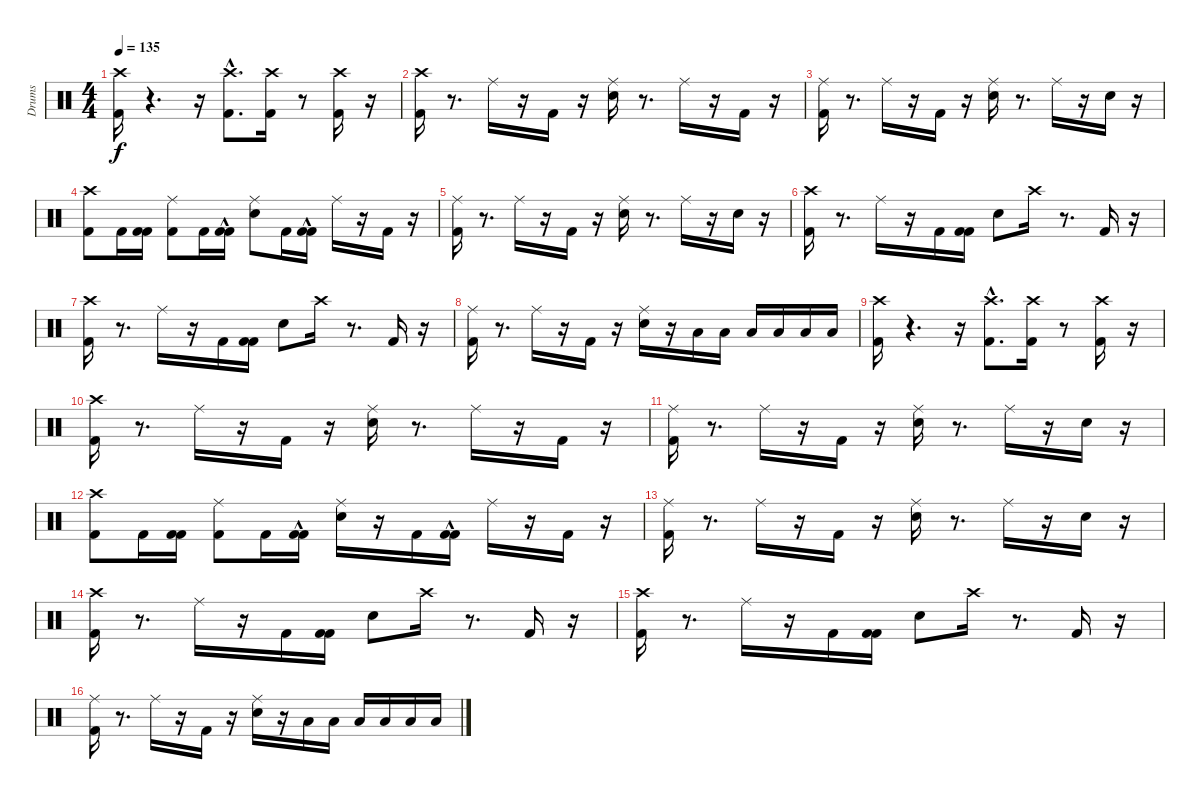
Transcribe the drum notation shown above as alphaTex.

\track ("Drums" "Drums") {instrument percussion}
\staff {score}
\articulation defaults
\ts (4 4)
\tempo 135
\clef neutral
\ks c
("Kick (hit) 2" "Crash high (hit)").16{dy f} r.4{d} r.16 ("Kick (hit) 2"{hac} "Crash high (hit)"{hac}).8{d} ("Kick (hit) 2" "Crash high (hit)").16 r.8 ("Kick (hit) 2" "Crash high (hit)").16 r.16 |
("Kick (hit) 2" "Crash high (hit)").16 r.8{d} "Ride (middle)".16 r.16 "Kick (hit) 2".16 r.16 ("Snare (hit) 2" "Ride (middle)").16 r.8{d} "Ride (middle)".16 r.16 "Kick (hit) 2".16 r.16 |
("Kick (hit) 2" "Ride (middle)").16 r.8{d} "Ride (middle)".16 r.16 "Kick (hit) 2".16 r.16 ("Snare (hit) 2" "Ride (middle)").16 r.8{d} "Ride (middle)".16 r.16 "Snare (hit) 2".16 r.16 |
("Kick (hit) 2" "Crash high (hit)").8 "Kick (hit) 2".16 ("Kick (hit) 2" "Kick (hit) 2").16 ("Kick (hit) 2" "Ride (middle)").8 "Kick (hit) 2".16 ("Kick (hit) 2"{hac} "Kick (hit) 2"{hac}).16 ("Snare (hit) 2" "Ride (middle)").8 "Kick (hit) 2".16 ("Kick (hit) 2"{hac} "Kick (hit) 2"{hac}).16 "Ride (middle)".16 r.16 "Kick (hit) 2".16 r.16 |
("Kick (hit) 2" "Ride (middle)").16 r.8{d} "Ride (middle)".16 r.16 "Kick (hit) 2".16 r.16 ("Snare (hit) 2" "Ride (middle)").16 r.8{d} "Ride (middle)".16 r.16 "Snare (hit) 2".16 r.16 |
("Kick (hit) 2" "Crash high (hit)").16 r.8{d} "Ride (middle)".16 r.16 "Kick (hit) 2".16 ("Kick (hit) 2" "Kick (hit) 2").16 "Snare (hit) 2".8 "Crash high (hit)".16 r.8{d} "Kick (hit) 2".16 r.16 |
("Kick (hit) 2" "Crash high (hit)").16 r.8{d} "Ride (middle)".16 r.16 "Kick (hit) 2".16 ("Kick (hit) 2" "Kick (hit) 2").16 "Snare (hit) 2".8 "Crash high (hit)".16 r.8{d} "Kick (hit) 2".16 r.16 |
("Kick (hit) 2" "Ride (middle)").16 r.8{d} "Ride (middle)".16 r.16 "Kick (hit) 2".16 r.16 ("Snare (hit) 2" "Ride (middle)").16 r.16 "Low Tom (hit)".16 "Low Tom (hit)".16 "Low Tom (hit)".16 "Low Floor Tom (hit)".16 "Low Floor Tom (hit)".16 "Low Floor Tom (hit)".16 |
("Kick (hit) 2" "Crash high (hit)").16 r.4{d} r.16 ("Kick (hit) 2"{hac} "Crash high (hit)"{hac}).8{d} ("Kick (hit) 2" "Crash high (hit)").16 r.8 ("Kick (hit) 2" "Crash high (hit)").16 r.16 |
("Kick (hit) 2" "Crash high (hit)").16 r.8{d} "Ride (middle)".16 r.16 "Kick (hit) 2".16 r.16 ("Snare (hit) 2" "Ride (middle)").16 r.8{d} "Ride (middle)".16 r.16 "Kick (hit) 2".16 r.16 |
("Kick (hit) 2" "Ride (middle)").16 r.8{d} "Ride (middle)".16 r.16 "Kick (hit) 2".16 r.16 ("Snare (hit) 2" "Ride (middle)").16 r.8{d} "Ride (middle)".16 r.16 "Snare (hit) 2".16 r.16 |
("Kick (hit) 2" "Crash high (hit)").8 "Kick (hit) 2".16 ("Kick (hit) 2" "Kick (hit) 2").16 ("Kick (hit) 2" "Ride (middle)").8 "Kick (hit) 2".16 ("Kick (hit) 2"{hac} "Kick (hit) 2"{hac}).16 ("Snare (hit) 2" "Ride (middle)").16 r.16 "Kick (hit) 2".16 ("Kick (hit) 2"{hac} "Kick (hit) 2"{hac}).16 "Ride (middle)".16 r.16 "Kick (hit) 2".16 r.16 |
("Kick (hit) 2" "Ride (middle)").16 r.8{d} "Ride (middle)".16 r.16 "Kick (hit) 2".16 r.16 ("Snare (hit) 2" "Ride (middle)").16 r.8{d} "Ride (middle)".16 r.16 "Snare (hit) 2".16 r.16 |
("Kick (hit) 2" "Crash high (hit)").16 r.8{d} "Ride (middle)".16 r.16 "Kick (hit) 2".16 ("Kick (hit) 2" "Kick (hit) 2").16 "Snare (hit) 2".8 "Crash high (hit)".16 r.8{d} "Kick (hit) 2".16 r.16 |
("Kick (hit) 2" "Crash high (hit)").16 r.8{d} "Ride (middle)".16 r.16 "Kick (hit) 2".16 ("Kick (hit) 2" "Kick (hit) 2").16 "Snare (hit) 2".8 "Crash high (hit)".16 r.8{d} "Kick (hit) 2".16 r.16 |
("Kick (hit) 2" "Ride (middle)").16 r.8{d} "Ride (middle)".16 r.16 "Kick (hit) 2".16 r.16 ("Snare (hit) 2" "Ride (middle)").16 r.16 "Low Tom (hit)".16 "Low Tom (hit)".16 "Low Tom (hit)".16 "Low Floor Tom (hit)".16 "Low Floor Tom (hit)".16 "Low Floor Tom (hit)".16
